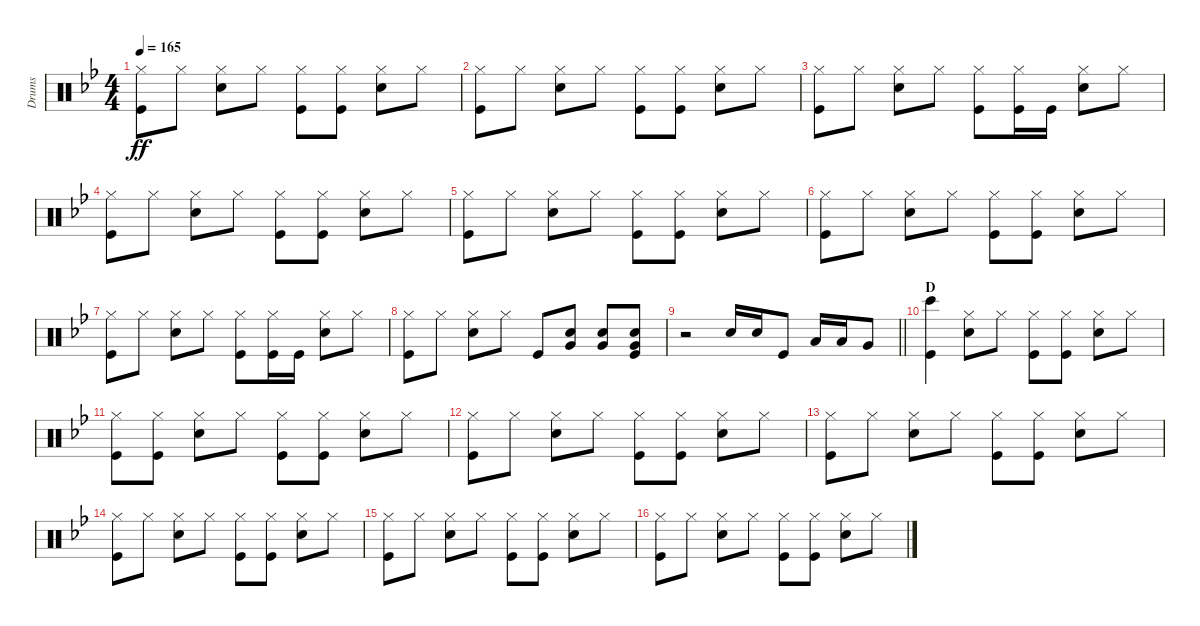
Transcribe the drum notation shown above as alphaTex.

\track ("Drums" "Drums") {instrument percussion}
\staff {score}
\articulation defaults
\ts (4 4)
\tempo 165
\clef neutral
\ks bb
("Hi-Hat (closed)" "Kick (hit)").8{dy ff} "Hi-Hat (closed)".8 ("Hi-Hat (closed)" "Snare (hit) 2").8 "Hi-Hat (closed)".8 ("Hi-Hat (closed)" "Kick (hit)").8 ("Hi-Hat (closed)" "Kick (hit)").8 ("Hi-Hat (closed)" "Snare (hit) 2").8 "Hi-Hat (closed)".8 |
("Hi-Hat (closed)" "Kick (hit)").8 "Hi-Hat (closed)".8 ("Hi-Hat (closed)" "Snare (hit) 2").8 "Hi-Hat (closed)".8 ("Hi-Hat (closed)" "Kick (hit)").8 ("Hi-Hat (closed)" "Kick (hit)").8 ("Hi-Hat (closed)" "Snare (hit) 2").8 "Hi-Hat (closed)".8 |
("Hi-Hat (closed)" "Kick (hit)").8 "Hi-Hat (closed)".8 ("Hi-Hat (closed)" "Snare (hit) 2").8 "Hi-Hat (closed)".8 ("Hi-Hat (closed)" "Kick (hit)").8 ("Hi-Hat (closed)" "Kick (hit)").16 "Kick (hit)".16 ("Hi-Hat (closed)" "Snare (hit) 2").8 "Hi-Hat (closed)".8 |
("Hi-Hat (closed)" "Kick (hit)").8 "Hi-Hat (closed)".8 ("Hi-Hat (closed)" "Snare (hit) 2").8 "Hi-Hat (closed)".8 ("Hi-Hat (closed)" "Kick (hit)").8 ("Hi-Hat (closed)" "Kick (hit)").8 ("Hi-Hat (closed)" "Snare (hit) 2").8 "Hi-Hat (closed)".8 |
("Hi-Hat (closed)" "Kick (hit)").8 "Hi-Hat (closed)".8 ("Hi-Hat (closed)" "Snare (hit) 2").8 "Hi-Hat (closed)".8 ("Hi-Hat (closed)" "Kick (hit)").8 ("Hi-Hat (closed)" "Kick (hit)").8 ("Hi-Hat (closed)" "Snare (hit) 2").8 "Hi-Hat (closed)".8 |
("Hi-Hat (closed)" "Kick (hit)").8 "Hi-Hat (closed)".8 ("Hi-Hat (closed)" "Snare (hit) 2").8 "Hi-Hat (closed)".8 ("Hi-Hat (closed)" "Kick (hit)").8 ("Hi-Hat (closed)" "Kick (hit)").8 ("Hi-Hat (closed)" "Snare (hit) 2").8 "Hi-Hat (closed)".8 |
("Hi-Hat (closed)" "Kick (hit)").8 "Hi-Hat (closed)".8 ("Hi-Hat (closed)" "Snare (hit) 2").8 "Hi-Hat (closed)".8 ("Hi-Hat (closed)" "Kick (hit)").8 ("Hi-Hat (closed)" "Kick (hit)").16 "Kick (hit)".16 ("Hi-Hat (closed)" "Snare (hit) 2").8 "Hi-Hat (closed)".8 |
("Hi-Hat (closed)" "Kick (hit)").8 "Hi-Hat (closed)".8 ("Hi-Hat (closed)" "Snare (hit) 2").8 "Hi-Hat (closed)".8 "Kick (hit)".8 ("Snare (hit) 2" "Very Low Tom (hit)").8 ("Snare (hit) 2" "Very Low Tom (hit)").8 ("Kick (hit)" "Snare (hit) 2" "Very Low Tom (hit)").8 |
\barLineRight lightlight
r.2 "Snare (hit) 2".16 "Snare (hit) 2".16 "Kick (hit)".8 "Low Tom (hit)".16 "Low Tom (hit)".16 "Very Low Tom (hit)".8 |
\section ("" "D")
("Bongo High (hit)" "Kick (hit)").4 ("Hi-Hat (closed)" "Snare (hit) 2").8 "Hi-Hat (closed)".8 ("Hi-Hat (closed)" "Kick (hit)").8 ("Hi-Hat (closed)" "Kick (hit)").8 ("Hi-Hat (closed)" "Snare (hit) 2").8 "Hi-Hat (closed)".8 |
("Hi-Hat (closed)" "Kick (hit)").8 ("Hi-Hat (closed)" "Kick (hit)").8 ("Hi-Hat (closed)" "Snare (hit) 2").8 "Hi-Hat (closed)".8 ("Hi-Hat (closed)" "Kick (hit)").8 ("Hi-Hat (closed)" "Kick (hit)").8 ("Hi-Hat (closed)" "Snare (hit) 2").8 "Hi-Hat (closed)".8 |
("Hi-Hat (closed)" "Kick (hit)").8 "Hi-Hat (closed)".8 ("Hi-Hat (closed)" "Snare (hit) 2").8 "Hi-Hat (closed)".8 ("Hi-Hat (closed)" "Kick (hit)").8 ("Hi-Hat (closed)" "Kick (hit)").8 ("Hi-Hat (closed)" "Snare (hit) 2").8 "Hi-Hat (closed)".8 |
("Hi-Hat (closed)" "Kick (hit)").8 "Hi-Hat (closed)".8 ("Hi-Hat (closed)" "Snare (hit) 2").8 "Hi-Hat (closed)".8 ("Hi-Hat (closed)" "Kick (hit)").8 ("Hi-Hat (closed)" "Kick (hit)").8 ("Hi-Hat (closed)" "Snare (hit) 2").8 "Hi-Hat (closed)".8 |
("Hi-Hat (closed)" "Kick (hit)").8 "Hi-Hat (closed)".8 ("Hi-Hat (closed)" "Snare (hit) 2").8 "Hi-Hat (closed)".8 ("Hi-Hat (closed)" "Kick (hit)").8 ("Hi-Hat (closed)" "Kick (hit)").8 ("Hi-Hat (closed)" "Snare (hit) 2").8 "Hi-Hat (closed)".8 |
("Hi-Hat (closed)" "Kick (hit)").8 "Hi-Hat (closed)".8 ("Hi-Hat (closed)" "Snare (hit) 2").8 "Hi-Hat (closed)".8 ("Hi-Hat (closed)" "Kick (hit)").8 ("Hi-Hat (closed)" "Kick (hit)").8 ("Hi-Hat (closed)" "Snare (hit) 2").8 "Hi-Hat (closed)".8 |
("Hi-Hat (closed)" "Kick (hit)").8 "Hi-Hat (closed)".8 ("Hi-Hat (closed)" "Snare (hit) 2").8 "Hi-Hat (closed)".8 ("Hi-Hat (closed)" "Kick (hit)").8 ("Hi-Hat (closed)" "Kick (hit)").8 ("Hi-Hat (closed)" "Snare (hit) 2").8 "Hi-Hat (closed)".8
